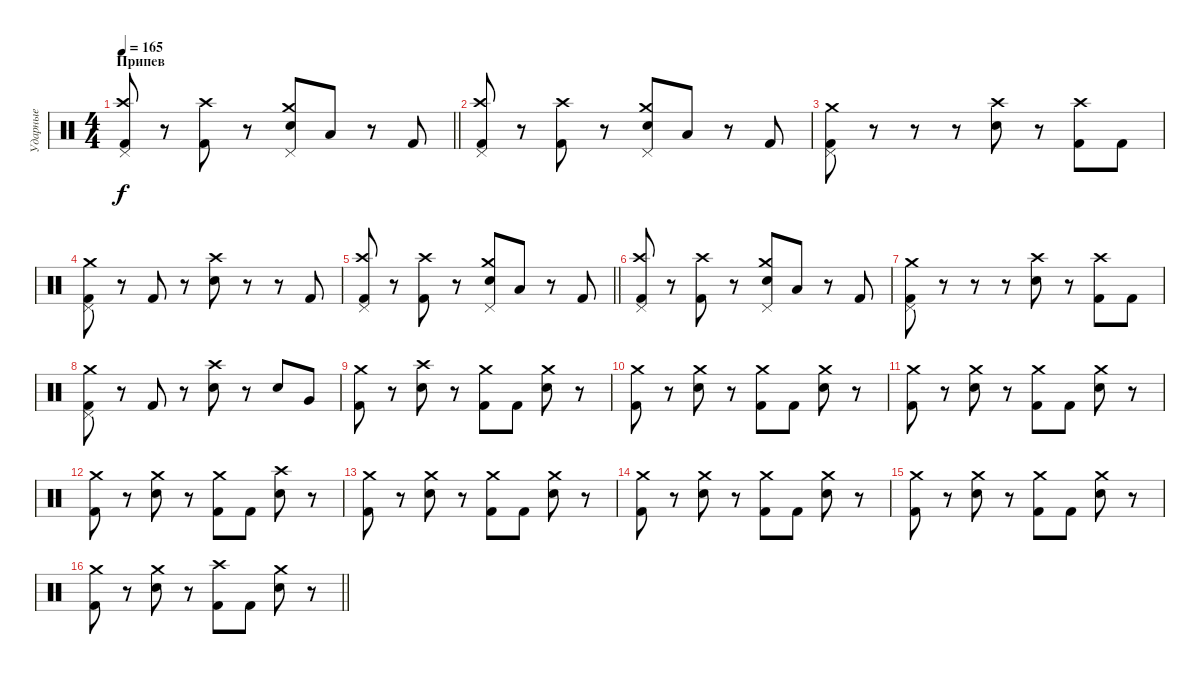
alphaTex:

\track ("Ударные" "Ударные") {instrument percussion}
\staff {score}
\articulation defaults
\ts (4 4)
\section ("" "Припев")
\tempo 165
\clef neutral
\barLineRight lightlight
\ks c
("Pedal Hi-Hat (hit)" "Crash high (hit)" "Kick (hit) 2").8{dy f} r.8 ("Crash high (hit)" "Kick (hit) 2").8 r.8 ("Pedal Hi-Hat (hit)" "Crash medium (hit)" "Snare (hit) 2").8 "Low Tom (hit)".8 r.8 "Kick (hit) 2".8 |
\section ("" "")
("Pedal Hi-Hat (hit)" "Crash high (hit)" "Kick (hit) 2").8 r.8 ("Crash high (hit)" "Kick (hit) 2").8 r.8 ("Pedal Hi-Hat (hit)" "Crash medium (hit)" "Snare (hit) 2").8 "Low Tom (hit)".8 r.8 "Kick (hit) 2".8 |
("Pedal Hi-Hat (hit)" "Crash medium (hit)" "Kick (hit) 2").8 r.8 r.8 r.8 ("Crash high (hit)" "Snare (hit) 2").8 r.8 ("Crash high (hit)" "Kick (hit) 2").8 "Kick (hit) 2".8 |
("Pedal Hi-Hat (hit)" "Crash medium (hit)" "Kick (hit) 2").8 r.8 "Kick (hit) 2".8 r.8 ("Crash high (hit)" "Snare (hit) 2").8 r.8 r.8 "Kick (hit) 2".8 |
\barLineRight lightlight
("Pedal Hi-Hat (hit)" "Crash high (hit)" "Kick (hit) 2").8 r.8 ("Crash high (hit)" "Kick (hit) 2").8 r.8 ("Pedal Hi-Hat (hit)" "Crash medium (hit)" "Snare (hit) 2").8 "Low Tom (hit)".8 r.8 "Kick (hit) 2".8 |
("Pedal Hi-Hat (hit)" "Crash high (hit)" "Kick (hit) 2").8 r.8 ("Crash high (hit)" "Kick (hit) 2").8 r.8 ("Pedal Hi-Hat (hit)" "Crash medium (hit)" "Snare (hit) 2").8 "Low Tom (hit)".8 r.8 "Kick (hit) 2".8 |
("Pedal Hi-Hat (hit)" "Crash medium (hit)" "Kick (hit) 2").8 r.8 r.8 r.8 ("Crash high (hit)" "Snare (hit) 2").8 r.8 ("Crash high (hit)" "Kick (hit) 2").8 "Kick (hit) 2".8 |
("Pedal Hi-Hat (hit)" "Crash medium (hit)" "Kick (hit) 2").8 r.8 "Kick (hit) 2".8 r.8 ("Crash high (hit)" "Snare (hit) 2").8 r.8 "Snare (hit) 2".8 "Very Low Tom (hit)".8 |
("Crash medium (hit)" "Kick (hit) 2").8 r.8 ("Crash high (hit)" "Snare (hit) 2").8 r.8 ("Crash medium (hit)" "Kick (hit) 2").8 "Kick (hit) 2".8 ("Crash medium (hit)" "Snare (hit) 2").8 r.8 |
("Crash medium (hit)" "Kick (hit) 2").8 r.8 ("Crash medium (hit)" "Snare (hit) 2").8 r.8 ("Crash medium (hit)" "Kick (hit) 2").8 "Kick (hit) 2".8 ("Crash medium (hit)" "Snare (hit) 2").8 r.8 |
("Crash medium (hit)" "Kick (hit) 2").8 r.8 ("Crash medium (hit)" "Snare (hit) 2").8 r.8 ("Crash medium (hit)" "Kick (hit) 2").8 "Kick (hit) 2".8 ("Crash medium (hit)" "Snare (hit) 2").8 r.8 |
("Crash medium (hit)" "Kick (hit) 2").8 r.8 ("Crash medium (hit)" "Snare (hit) 2").8 r.8 ("Crash medium (hit)" "Kick (hit) 2").8 "Kick (hit) 2".8 ("Crash high (hit)" "Snare (hit) 2").8 r.8 |
("Crash medium (hit)" "Kick (hit) 2").8 r.8 ("Crash medium (hit)" "Snare (hit) 2").8 r.8 ("Crash medium (hit)" "Kick (hit) 2").8 "Kick (hit) 2".8 ("Crash medium (hit)" "Snare (hit) 2").8 r.8 |
("Crash medium (hit)" "Kick (hit) 2").8 r.8 ("Crash medium (hit)" "Snare (hit) 2").8 r.8 ("Crash medium (hit)" "Kick (hit) 2").8 "Kick (hit) 2".8 ("Crash medium (hit)" "Snare (hit) 2").8 r.8 |
("Crash medium (hit)" "Kick (hit) 2").8 r.8 ("Crash medium (hit)" "Snare (hit) 2").8 r.8 ("Crash medium (hit)" "Kick (hit) 2").8 "Kick (hit) 2".8 ("Crash medium (hit)" "Snare (hit) 2").8 r.8 |
\barLineRight lightlight
("Crash medium (hit)" "Kick (hit) 2").8 r.8 ("Crash medium (hit)" "Snare (hit) 2").8 r.8 ("Crash high (hit)" "Kick (hit) 2").8 "Kick (hit) 2".8 ("Crash medium (hit)" "Snare (hit) 2").8 r.8
